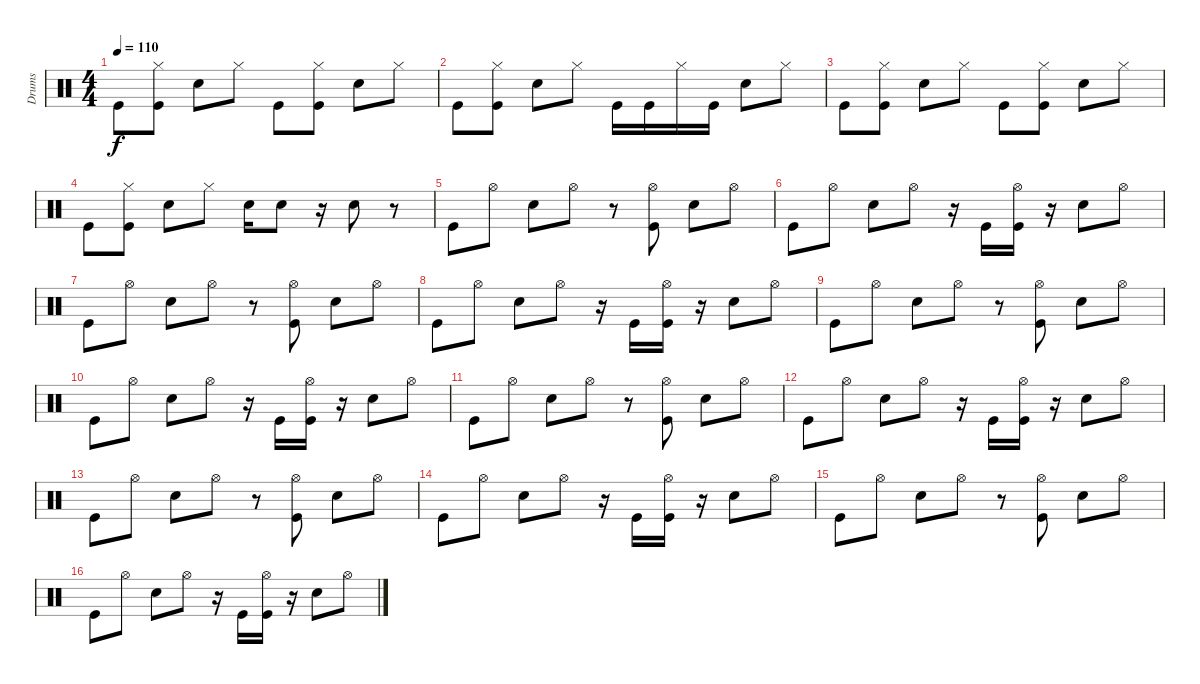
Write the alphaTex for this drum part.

\track ("Drums" "Drums") {instrument percussion}
\staff {score}
\articulation defaults
\ts (4 4)
\tempo 110
\clef neutral
\ks c "Kick (hit)".8{dy f}
("Hi-Hat (closed)" "Kick (hit)").8 "Electric Snare (hit)".8 "Hi-Hat (closed)".8 "Kick (hit)".8 ("Hi-Hat (closed)" "Kick (hit)").8 "Electric Snare (hit)".8 "Hi-Hat (closed)".8 |
"Kick (hit)".8 ("Hi-Hat (closed)" "Kick (hit)").8 "Electric Snare (hit)".8 "Hi-Hat (closed)".8 "Kick (hit)".16 "Kick (hit)".16 "Hi-Hat (closed)".16 "Kick (hit)".16 "Electric Snare (hit)".8 "Hi-Hat (closed)".8 |
"Kick (hit)".8 ("Hi-Hat (closed)" "Kick (hit)").8 "Electric Snare (hit)".8 "Hi-Hat (closed)".8 "Kick (hit)".8 ("Hi-Hat (closed)" "Kick (hit)").8 "Electric Snare (hit)".8 "Hi-Hat (closed)".8 |
"Kick (hit)".8 ("Hi-Hat (closed)" "Kick (hit)").8 "Electric Snare (hit)".8 "Hi-Hat (closed)".8 "Electric Snare (hit)".16 "Electric Snare (hit)".8 r.16 "Electric Snare (hit)".8 r.8 |
"Kick (hit)".8 "Hi-Hat (open)".8 "Electric Snare (hit)".8 "Hi-Hat (open)".8 r.8 ("Hi-Hat (open)" "Kick (hit)").8 "Electric Snare (hit)".8 "Hi-Hat (open)".8 |
"Kick (hit)".8 "Hi-Hat (open)".8 "Electric Snare (hit)".8 "Hi-Hat (open)".8 r.16 "Kick (hit)".16 ("Hi-Hat (open)" "Kick (hit)").16 r.16 "Electric Snare (hit)".8 "Hi-Hat (open)".8 |
"Kick (hit)".8 "Hi-Hat (open)".8 "Electric Snare (hit)".8 "Hi-Hat (open)".8 r.8 ("Hi-Hat (open)" "Kick (hit)").8 "Electric Snare (hit)".8 "Hi-Hat (open)".8 |
"Kick (hit)".8 "Hi-Hat (open)".8 "Electric Snare (hit)".8 "Hi-Hat (open)".8 r.16 "Kick (hit)".16 ("Hi-Hat (open)" "Kick (hit)").16 r.16 "Electric Snare (hit)".8 "Hi-Hat (open)".8 |
"Kick (hit)".8 "Hi-Hat (open)".8 "Electric Snare (hit)".8 "Hi-Hat (open)".8 r.8 ("Hi-Hat (open)" "Kick (hit)").8 "Electric Snare (hit)".8 "Hi-Hat (open)".8 |
"Kick (hit)".8 "Hi-Hat (open)".8 "Electric Snare (hit)".8 "Hi-Hat (open)".8 r.16 "Kick (hit)".16 ("Hi-Hat (open)" "Kick (hit)").16 r.16 "Electric Snare (hit)".8 "Hi-Hat (open)".8 |
"Kick (hit)".8 "Hi-Hat (open)".8 "Electric Snare (hit)".8 "Hi-Hat (open)".8 r.8 ("Hi-Hat (open)" "Kick (hit)").8 "Electric Snare (hit)".8 "Hi-Hat (open)".8 |
"Kick (hit)".8 "Hi-Hat (open)".8 "Electric Snare (hit)".8 "Hi-Hat (open)".8 r.16 "Kick (hit)".16 ("Hi-Hat (open)" "Kick (hit)").16 r.16 "Electric Snare (hit)".8 "Hi-Hat (open)".8 |
"Kick (hit)".8 "Hi-Hat (open)".8 "Electric Snare (hit)".8 "Hi-Hat (open)".8 r.8 ("Hi-Hat (open)" "Kick (hit)").8 "Electric Snare (hit)".8 "Hi-Hat (open)".8 |
"Kick (hit)".8 "Hi-Hat (open)".8 "Electric Snare (hit)".8 "Hi-Hat (open)".8 r.16 "Kick (hit)".16 ("Hi-Hat (open)" "Kick (hit)").16 r.16 "Electric Snare (hit)".8 "Hi-Hat (open)".8 |
"Kick (hit)".8 "Hi-Hat (open)".8 "Electric Snare (hit)".8 "Hi-Hat (open)".8 r.8 ("Hi-Hat (open)" "Kick (hit)").8 "Electric Snare (hit)".8 "Hi-Hat (open)".8 |
"Kick (hit)".8 "Hi-Hat (open)".8 "Electric Snare (hit)".8 "Hi-Hat (open)".8 r.16 "Kick (hit)".16 ("Hi-Hat (open)" "Kick (hit)").16 r.16 "Electric Snare (hit)".8 "Hi-Hat (open)".8
